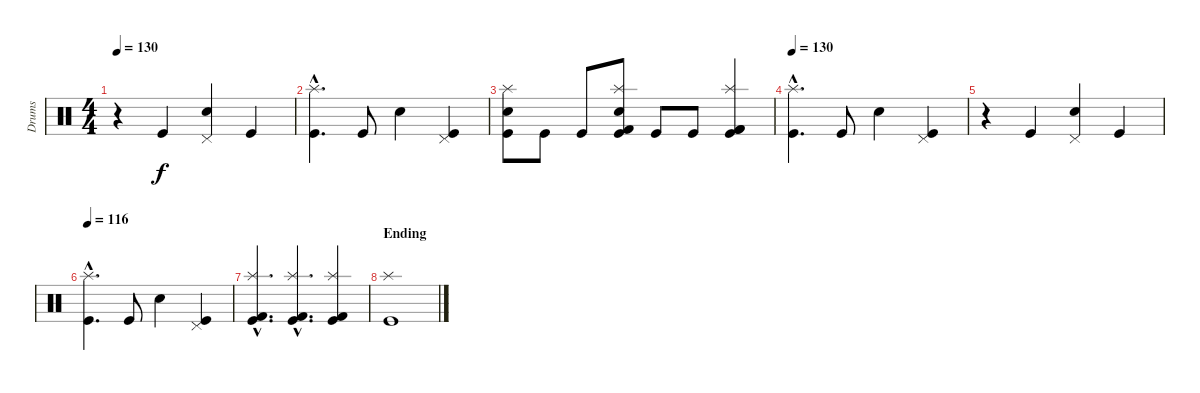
\track ("Drums" "Drums") {instrument percussion}
\staff {score}
\articulation defaults
\ts (4 4)
\tempo 130
\clef neutral
\ks c
r.4{dy f} "Kick (hit)".4 ("Electric Snare (hit)" "Pedal Hi-Hat (hit)").4 "Kick (hit)".4 |
("Kick (hit)"{hac} "Splash (hit)"{hac}).4{d} "Kick (hit)".8 "Electric Snare (hit)".4 ("Kick (hit)" "Pedal Hi-Hat (hit)").4 |
("Kick (hit)" "Electric Snare (hit)" "Splash (hit)").8 "Kick (hit)".8 "Kick (hit)".8 ("Kick (hit) 2" "Kick (hit)" "Electric Snare (hit)" "Splash (hit)").8 "Kick (hit)".8 "Kick (hit)".8 ("Kick (hit) 2" "Kick (hit)" "Kick (hit) 2" "Splash (hit)").4 |
\tempo 130
("Kick (hit)"{hac} "Splash (hit)"{hac}).4{d} "Kick (hit)".8 "Electric Snare (hit)".4 ("Kick (hit)" "Pedal Hi-Hat (hit)").4 |
r.4 "Kick (hit)".4 ("Electric Snare (hit)" "Pedal Hi-Hat (hit)").4 "Kick (hit)".4 |
\tempo 116
("Kick (hit)"{hac} "Splash (hit)"{hac}).4{d} "Kick (hit)".8 "Electric Snare (hit)".4 ("Kick (hit)" "Pedal Hi-Hat (hit)").4 |
("Kick (hit) 2"{hac} "Kick (hit)"{hac} "Splash (hit)"{hac}).4{d} ("Kick (hit) 2"{hac} "Kick (hit)"{hac} "Splash (hit)"{hac}).4{d} ("Kick (hit) 2" "Kick (hit)" "Splash (hit)").4 |
\section ("" "Ending")
("Kick (hit)" "Splash (hit)").1
